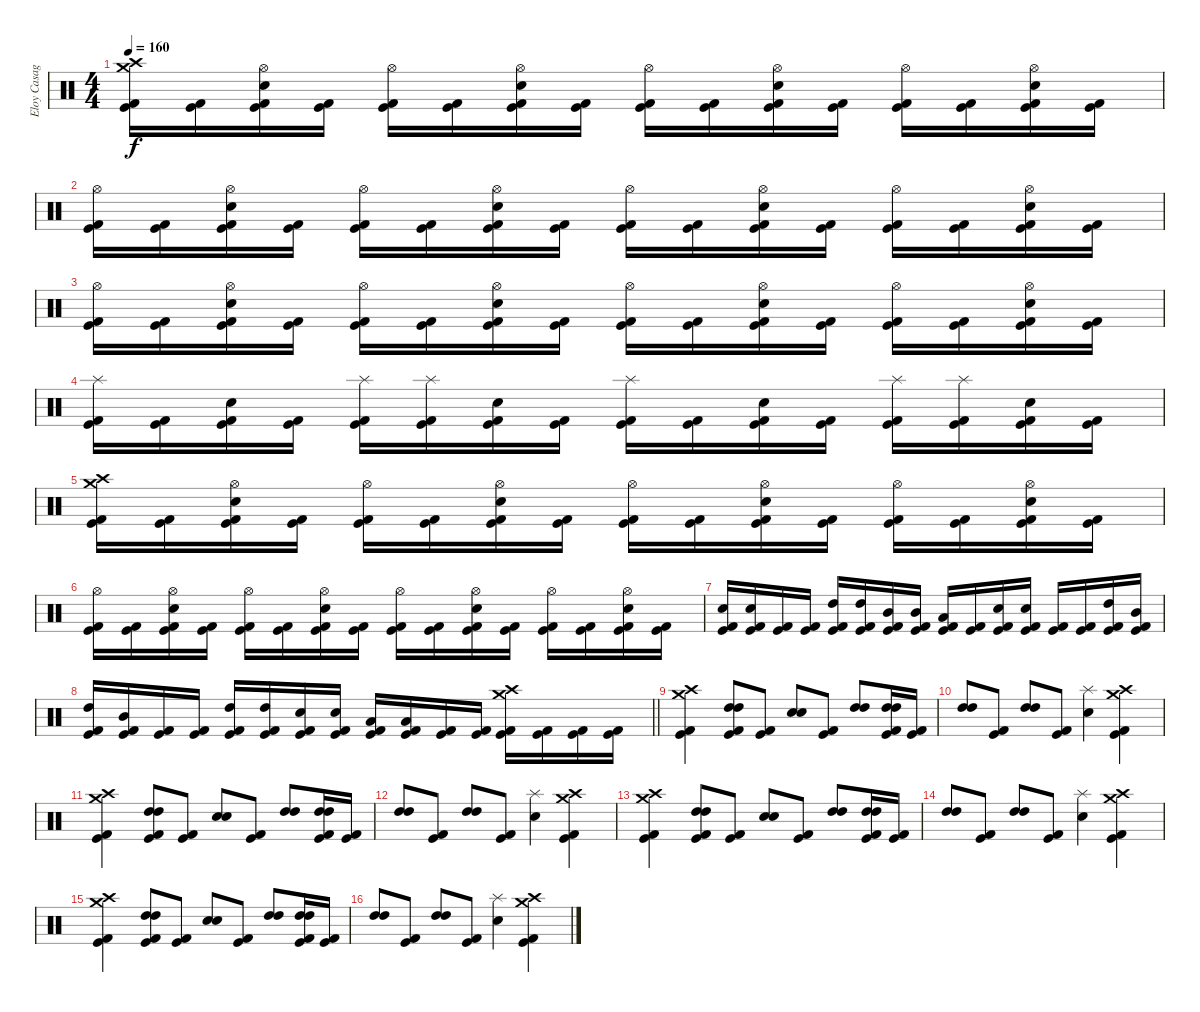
\track ("Eloy Casagrande" "Eloy Casag") {instrument percussion}
\staff {score}
\articulation defaults
\ts (4 4)
\tempo 160
\clef neutral
\ks c
("Crash medium (hit)" "Crash high (hit)" "Kick (hit) 2" "Kick (hit)").16{dy f} ("Kick (hit) 2" "Kick (hit)").16 ("Hi-Hat (open)" "Electric Snare (hit)" "Kick (hit) 2" "Kick (hit)").16 ("Kick (hit) 2" "Kick (hit)").16 ("Hi-Hat (open)" "Kick (hit) 2" "Kick (hit)").16 ("Kick (hit) 2" "Kick (hit)").16 ("Hi-Hat (open)" "Electric Snare (hit)" "Kick (hit) 2" "Kick (hit)").16 ("Kick (hit) 2" "Kick (hit)").16 ("Hi-Hat (open)" "Kick (hit) 2" "Kick (hit)").16 ("Kick (hit) 2" "Kick (hit)").16 ("Hi-Hat (open)" "Electric Snare (hit)" "Kick (hit) 2" "Kick (hit)").16 ("Kick (hit) 2" "Kick (hit)").16 ("Hi-Hat (open)" "Kick (hit) 2" "Kick (hit)").16 ("Kick (hit) 2" "Kick (hit)").16 ("Hi-Hat (open)" "Electric Snare (hit)" "Kick (hit) 2" "Kick (hit)").16 ("Kick (hit) 2" "Kick (hit)").16 |
("Hi-Hat (open)" "Kick (hit) 2" "Kick (hit)").16 ("Kick (hit) 2" "Kick (hit)").16 ("Hi-Hat (open)" "Electric Snare (hit)" "Kick (hit) 2" "Kick (hit)").16 ("Kick (hit) 2" "Kick (hit)").16 ("Hi-Hat (open)" "Kick (hit) 2" "Kick (hit)").16 ("Kick (hit) 2" "Kick (hit)").16 ("Hi-Hat (open)" "Electric Snare (hit)" "Kick (hit) 2" "Kick (hit)").16 ("Kick (hit) 2" "Kick (hit)").16 ("Hi-Hat (open)" "Kick (hit) 2" "Kick (hit)").16 ("Kick (hit) 2" "Kick (hit)").16 ("Hi-Hat (open)" "Electric Snare (hit)" "Kick (hit) 2" "Kick (hit)").16 ("Kick (hit) 2" "Kick (hit)").16 ("Hi-Hat (open)" "Kick (hit) 2" "Kick (hit)").16 ("Kick (hit) 2" "Kick (hit)").16 ("Hi-Hat (open)" "Electric Snare (hit)" "Kick (hit) 2" "Kick (hit)").16 ("Kick (hit) 2" "Kick (hit)").16 |
("Hi-Hat (open)" "Kick (hit) 2" "Kick (hit)").16 ("Kick (hit) 2" "Kick (hit)").16 ("Hi-Hat (open)" "Electric Snare (hit)" "Kick (hit) 2" "Kick (hit)").16 ("Kick (hit) 2" "Kick (hit)").16 ("Hi-Hat (open)" "Kick (hit) 2" "Kick (hit)").16 ("Kick (hit) 2" "Kick (hit)").16 ("Hi-Hat (open)" "Electric Snare (hit)" "Kick (hit) 2" "Kick (hit)").16 ("Kick (hit) 2" "Kick (hit)").16 ("Hi-Hat (open)" "Kick (hit) 2" "Kick (hit)").16 ("Kick (hit) 2" "Kick (hit)").16 ("Hi-Hat (open)" "Electric Snare (hit)" "Kick (hit) 2" "Kick (hit)").16 ("Kick (hit) 2" "Kick (hit)").16 ("Hi-Hat (open)" "Kick (hit) 2" "Kick (hit)").16 ("Kick (hit) 2" "Kick (hit)").16 ("Hi-Hat (open)" "Electric Snare (hit)" "Kick (hit) 2" "Kick (hit)").16 ("Kick (hit) 2" "Kick (hit)").16 |
("Splash (hit)" "Kick (hit) 2" "Kick (hit)").16 ("Kick (hit) 2" "Kick (hit)").16 ("Electric Snare (hit)" "Kick (hit) 2" "Kick (hit)").16 ("Kick (hit) 2" "Kick (hit)").16 ("Splash (hit)" "Kick (hit) 2" "Kick (hit)").16 ("Splash (hit)" "Kick (hit) 2" "Kick (hit)").16 ("Electric Snare (hit)" "Kick (hit) 2" "Kick (hit)").16 ("Kick (hit) 2" "Kick (hit)").16 ("Splash (hit)" "Kick (hit) 2" "Kick (hit)").16 ("Kick (hit) 2" "Kick (hit)").16 ("Electric Snare (hit)" "Kick (hit) 2" "Kick (hit)").16 ("Kick (hit) 2" "Kick (hit)").16 ("Splash (hit)" "Kick (hit) 2" "Kick (hit)").16 ("Splash (hit)" "Kick (hit) 2" "Kick (hit)").16 ("Electric Snare (hit)" "Kick (hit) 2" "Kick (hit)").16 ("Kick (hit) 2" "Kick (hit)").16 |
("Crash medium (hit)" "Crash high (hit)" "Kick (hit) 2" "Kick (hit)").16 ("Kick (hit) 2" "Kick (hit)").16 ("Hi-Hat (open)" "Electric Snare (hit)" "Kick (hit) 2" "Kick (hit)").16 ("Kick (hit) 2" "Kick (hit)").16 ("Hi-Hat (open)" "Kick (hit) 2" "Kick (hit)").16 ("Kick (hit) 2" "Kick (hit)").16 ("Hi-Hat (open)" "Electric Snare (hit)" "Kick (hit) 2" "Kick (hit)").16 ("Kick (hit) 2" "Kick (hit)").16 ("Hi-Hat (open)" "Kick (hit) 2" "Kick (hit)").16 ("Kick (hit) 2" "Kick (hit)").16 ("Hi-Hat (open)" "Electric Snare (hit)" "Kick (hit) 2" "Kick (hit)").16 ("Kick (hit) 2" "Kick (hit)").16 ("Hi-Hat (open)" "Kick (hit) 2" "Kick (hit)").16 ("Kick (hit) 2" "Kick (hit)").16 ("Hi-Hat (open)" "Electric Snare (hit)" "Kick (hit) 2" "Kick (hit)").16 ("Kick (hit) 2" "Kick (hit)").16 |
("Hi-Hat (open)" "Kick (hit) 2" "Kick (hit)").16 ("Kick (hit) 2" "Kick (hit)").16 ("Hi-Hat (open)" "Electric Snare (hit)" "Kick (hit) 2" "Kick (hit)").16 ("Kick (hit) 2" "Kick (hit)").16 ("Hi-Hat (open)" "Kick (hit) 2" "Kick (hit)").16 ("Kick (hit) 2" "Kick (hit)").16 ("Hi-Hat (open)" "Electric Snare (hit)" "Kick (hit) 2" "Kick (hit)").16 ("Kick (hit) 2" "Kick (hit)").16 ("Hi-Hat (open)" "Kick (hit) 2" "Kick (hit)").16 ("Kick (hit) 2" "Kick (hit)").16 ("Hi-Hat (open)" "Electric Snare (hit)" "Kick (hit) 2" "Kick (hit)").16 ("Kick (hit) 2" "Kick (hit)").16 ("Hi-Hat (open)" "Kick (hit) 2" "Kick (hit)").16 ("Kick (hit) 2" "Kick (hit)").16 ("Hi-Hat (open)" "Electric Snare (hit)" "Kick (hit) 2" "Kick (hit)").16 ("Kick (hit) 2" "Kick (hit)").16 |
("Electric Snare (hit)" "Kick (hit) 2" "Kick (hit)").16 ("Electric Snare (hit)" "Kick (hit) 2" "Kick (hit)").16 ("Kick (hit) 2" "Kick (hit)").16 ("Kick (hit) 2" "Kick (hit)").16 ("High Tom (hit)" "Kick (hit) 2" "Kick (hit)").16 ("High Tom (hit)" "Kick (hit) 2" "Kick (hit)").16 ("Mid Tom (hit)" "Kick (hit) 2" "Kick (hit)").16 ("Mid Tom (hit)" "Kick (hit) 2" "Kick (hit)").16 ("Low Tom (hit)" "Kick (hit) 2" "Kick (hit)").16 ("Kick (hit) 2" "Kick (hit)").16 ("Electric Snare (hit)" "Kick (hit) 2" "Kick (hit)").16 ("Electric Snare (hit)" "Kick (hit) 2" "Kick (hit)").16 ("Kick (hit) 2" "Kick (hit)").16 ("Kick (hit) 2" "Kick (hit)").16 ("High Tom (hit)" "Kick (hit) 2" "Kick (hit)").16 ("Mid Tom (hit)" "Kick (hit) 2" "Kick (hit)").16 |
\barLineRight lightlight
("High Tom (hit)" "Kick (hit) 2" "Kick (hit)").16 ("Mid Tom (hit)" "Kick (hit) 2" "Kick (hit)").16 ("Kick (hit) 2" "Kick (hit)").16 ("Kick (hit) 2" "Kick (hit)").16 ("High Tom (hit)" "Kick (hit) 2" "Kick (hit)").16 ("High Tom (hit)" "Kick (hit) 2" "Kick (hit)").16 ("Electric Snare (hit)" "Kick (hit) 2" "Kick (hit)").16 ("Electric Snare (hit)" "Kick (hit) 2" "Kick (hit)").16 ("Low Tom (hit)" "Kick (hit) 2" "Kick (hit)").16 ("Low Tom (hit)" "Kick (hit) 2" "Kick (hit)").16 ("Kick (hit) 2" "Kick (hit)").16 ("Kick (hit) 2" "Kick (hit)").16 ("Crash medium (hit)" "Crash high (hit)" "Kick (hit) 2" "Kick (hit)").16 ("Kick (hit) 2" "Kick (hit)").16 ("Kick (hit) 2" "Kick (hit)").16 ("Kick (hit) 2" "Kick (hit)").16 |
("Crash medium (hit)" "Crash high (hit)" "Kick (hit) 2" "Kick (hit)").4 ("High Tom (hit)" "High Tom (hit)" "Kick (hit) 2" "Kick (hit)").8 ("Kick (hit) 2" "Kick (hit)").8 ("Electric Snare (hit)" "Electric Snare (hit)").8 ("Kick (hit) 2" "Kick (hit)").8 ("High Tom (hit)" "High Tom (hit)").8 ("High Tom (hit)" "High Tom (hit)" "Kick (hit) 2" "Kick (hit)").16 ("Kick (hit) 2" "Kick (hit)").16 |
("High Tom (hit)" "High Tom (hit)").8 ("Kick (hit) 2" "Kick (hit)").8 ("High Tom (hit)" "High Tom (hit)").8 ("Kick (hit)" "Kick (hit) 2").8 ("Splash (hit)" "Electric Snare (hit)").4 ("Crash medium (hit)" "Crash high (hit)" "Kick (hit) 2" "Kick (hit)").4 |
("Crash medium (hit)" "Crash high (hit)" "Kick (hit) 2" "Kick (hit)").4 ("High Tom (hit)" "High Tom (hit)" "Kick (hit) 2" "Kick (hit)").8 ("Kick (hit) 2" "Kick (hit)").8 ("Electric Snare (hit)" "Electric Snare (hit)").8 ("Kick (hit) 2" "Kick (hit)").8 ("High Tom (hit)" "High Tom (hit)").8 ("High Tom (hit)" "High Tom (hit)" "Kick (hit) 2" "Kick (hit)").16 ("Kick (hit) 2" "Kick (hit)").16 |
("High Tom (hit)" "High Tom (hit)").8 ("Kick (hit) 2" "Kick (hit)").8 ("High Tom (hit)" "High Tom (hit)").8 ("Kick (hit)" "Kick (hit) 2").8 ("Splash (hit)" "Electric Snare (hit)").4 ("Crash medium (hit)" "Crash high (hit)" "Kick (hit) 2" "Kick (hit)").4 |
("Crash medium (hit)" "Crash high (hit)" "Kick (hit) 2" "Kick (hit)").4 ("High Tom (hit)" "High Tom (hit)" "Kick (hit) 2" "Kick (hit)").8 ("Kick (hit) 2" "Kick (hit)").8 ("Electric Snare (hit)" "Electric Snare (hit)").8 ("Kick (hit) 2" "Kick (hit)").8 ("High Tom (hit)" "High Tom (hit)").8 ("High Tom (hit)" "High Tom (hit)" "Kick (hit) 2" "Kick (hit)").16 ("Kick (hit) 2" "Kick (hit)").16 |
("High Tom (hit)" "High Tom (hit)").8 ("Kick (hit) 2" "Kick (hit)").8 ("High Tom (hit)" "High Tom (hit)").8 ("Kick (hit)" "Kick (hit) 2").8 ("Splash (hit)" "Electric Snare (hit)").4 ("Crash medium (hit)" "Crash high (hit)" "Kick (hit) 2" "Kick (hit)").4 |
("Crash medium (hit)" "Crash high (hit)" "Kick (hit) 2" "Kick (hit)").4 ("High Tom (hit)" "High Tom (hit)" "Kick (hit) 2" "Kick (hit)").8 ("Kick (hit) 2" "Kick (hit)").8 ("Electric Snare (hit)" "Electric Snare (hit)").8 ("Kick (hit) 2" "Kick (hit)").8 ("High Tom (hit)" "High Tom (hit)").8 ("High Tom (hit)" "High Tom (hit)" "Kick (hit) 2" "Kick (hit)").16 ("Kick (hit) 2" "Kick (hit)").16 |
("High Tom (hit)" "High Tom (hit)").8 ("Kick (hit) 2" "Kick (hit)").8 ("High Tom (hit)" "High Tom (hit)").8 ("Kick (hit)" "Kick (hit) 2").8 ("Splash (hit)" "Electric Snare (hit)").4 ("Crash medium (hit)" "Crash high (hit)" "Kick (hit) 2" "Kick (hit)").4
